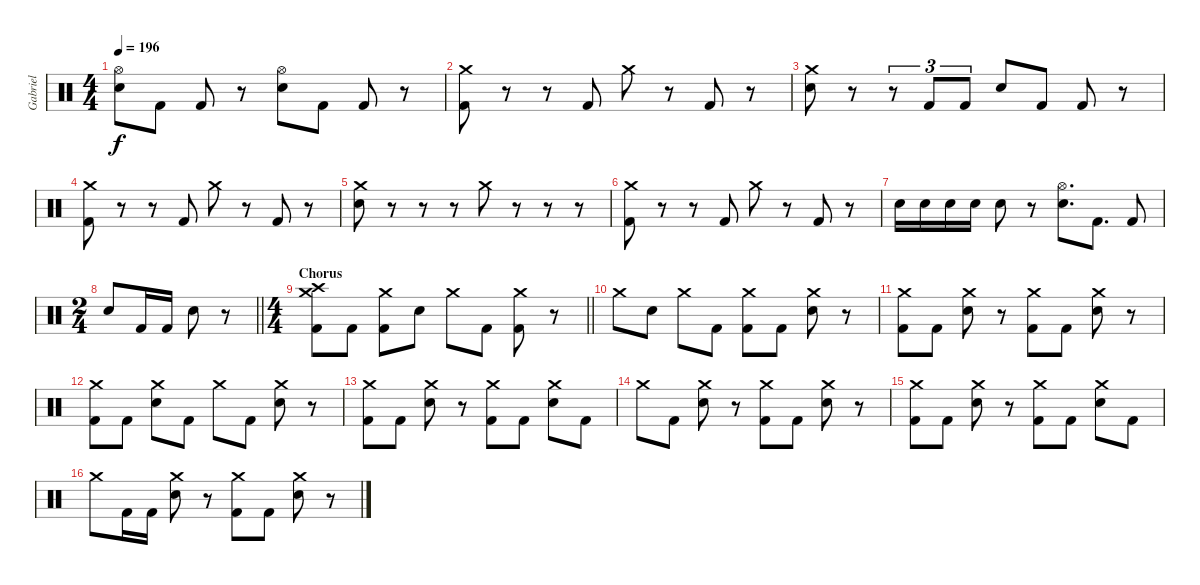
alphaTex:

\track ("Gabriel" "Gabriel") {instrument percussion}
\staff {score}
\articulation defaults
\ts (4 4)
\tempo 196
\clef neutral
\ks c
("Hi-Hat (open)" "Electric Snare (hit)").8{dy f} "Kick (hit) 2".8 "Kick (hit) 2".8 r.8 ("Hi-Hat (open)" "Electric Snare (hit)").8 "Kick (hit) 2".8 "Kick (hit) 2".8 r.8 |
("Crash medium (hit)" "Kick (hit) 2").8 r.8 r.8 "Kick (hit) 2".8 "Crash medium (hit)".8 r.8 "Kick (hit) 2".8 r.8 |
("Crash medium (hit)" "Electric Snare (hit)").8 r.8 r.8{tu (3 2)} "Kick (hit) 2".8{tu (3 2)} "Kick (hit) 2".8{tu (3 2)} "Electric Snare (hit)".8 "Kick (hit) 2".8 "Kick (hit) 2".8 r.8 |
("Crash medium (hit)" "Kick (hit) 2").8 r.8 r.8 "Kick (hit) 2".8 "Crash medium (hit)".8 r.8 "Kick (hit) 2".8 r.8 |
("Crash medium (hit)" "Electric Snare (hit)").8 r.8 r.8 r.8 "Crash medium (hit)".8 r.8 r.8 r.8 |
("Crash medium (hit)" "Kick (hit) 2").8 r.8 r.8 "Kick (hit) 2".8 "Crash medium (hit)".8 r.8 "Kick (hit) 2".8 r.8 |
"Electric Snare (hit)".16 "Electric Snare (hit)".16 "Electric Snare (hit)".16 "Electric Snare (hit)".16 "Electric Snare (hit)".8 r.8 ("Hi-Hat (open)" "Electric Snare (hit)").8{d} "Kick (hit) 2".8{d} "Kick (hit) 2".8 |
\ts (2 4)
\barLineRight lightlight "Electric Snare (hit)".8 "Kick (hit) 2".16 "Kick (hit) 2".16 "Electric Snare (hit)".8
r.8 |
\ts (4 4)
\section ("" "Chorus")
\barLineRight lightlight
("Crash high (hit)" "Crash medium (hit)" "Kick (hit) 2").8 "Kick (hit) 2".8 ("Crash medium (hit)" "Kick (hit) 2").8 "Electric Snare (hit)".8 "Crash medium (hit)".8 "Kick (hit) 2".8 ("Crash medium (hit)" "Kick (hit) 2").8 r.8 |
"Crash medium (hit)".8 "Electric Snare (hit)".8 "Crash medium (hit)".8 "Kick (hit) 2".8 ("Crash medium (hit)" "Kick (hit) 2").8 "Kick (hit) 2".8 ("Crash medium (hit)" "Electric Snare (hit)").8 r.8 |
("Crash medium (hit)" "Kick (hit) 2").8 "Kick (hit) 2".8 ("Crash medium (hit)" "Electric Snare (hit)").8 r.8 ("Crash medium (hit)" "Kick (hit) 2").8 "Kick (hit) 2".8 ("Crash medium (hit)" "Electric Snare (hit)").8 r.8 |
("Crash medium (hit)" "Kick (hit) 2").8 "Kick (hit) 2".8 ("Crash medium (hit)" "Electric Snare (hit)").8 "Kick (hit) 2".8 "Crash medium (hit)".8 "Kick (hit) 2".8 ("Crash medium (hit)" "Electric Snare (hit)").8 r.8 |
("Crash medium (hit)" "Kick (hit) 2").8 "Kick (hit) 2".8 ("Crash medium (hit)" "Electric Snare (hit)").8 r.8 ("Crash medium (hit)" "Kick (hit) 2").8 "Kick (hit) 2".8 ("Crash medium (hit)" "Electric Snare (hit)").8 "Kick (hit) 2".8 |
"Crash medium (hit)".8 "Kick (hit) 2".8 ("Crash medium (hit)" "Electric Snare (hit)").8 r.8 ("Crash medium (hit)" "Kick (hit) 2").8 "Kick (hit) 2".8 ("Crash medium (hit)" "Electric Snare (hit)").8 r.8 |
("Crash medium (hit)" "Kick (hit) 2").8 "Kick (hit) 2".8 ("Crash medium (hit)" "Electric Snare (hit)").8 r.8 ("Crash medium (hit)" "Kick (hit) 2").8 "Kick (hit) 2".8 ("Crash medium (hit)" "Electric Snare (hit)").8 "Kick (hit) 2".8 |
"Crash medium (hit)".8 "Kick (hit) 2".16 "Kick (hit) 2".16 ("Crash medium (hit)" "Electric Snare (hit)").8 r.8 ("Crash medium (hit)" "Kick (hit) 2").8 "Kick (hit) 2".8 ("Crash medium (hit)" "Electric Snare (hit)").8 r.8
